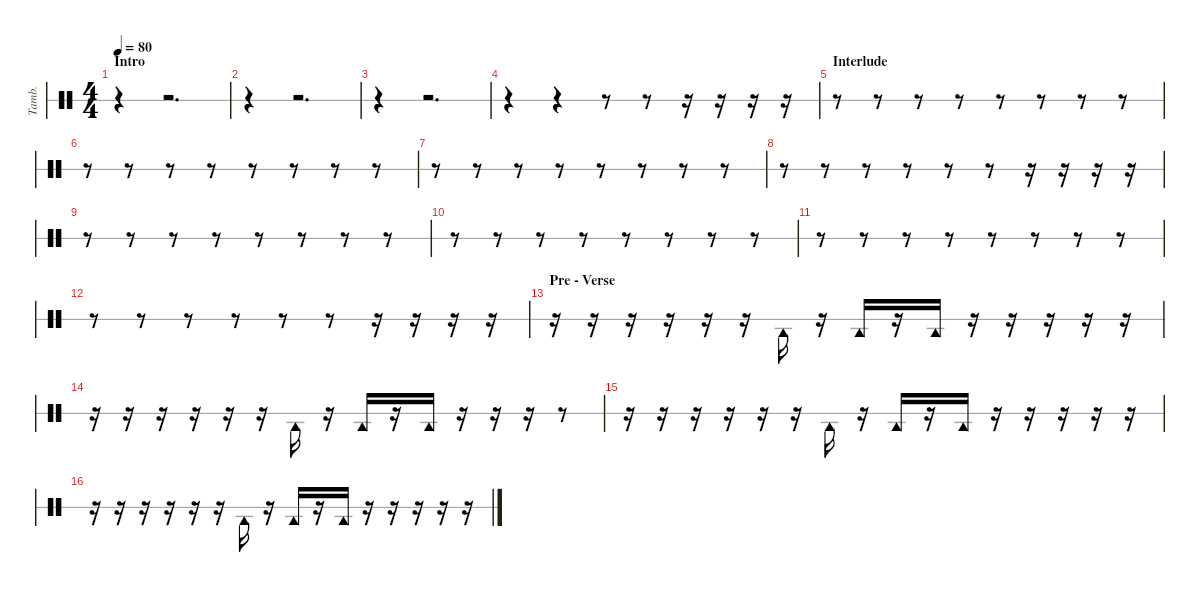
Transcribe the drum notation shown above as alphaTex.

\hideDynamics
\bracketExtendMode nobrackets
\otherSystemsTrackNameOrientation horizontal
\track ("Tambourine" "Tamb.") {instrument percussion}
\staff {score 1}
\articulation defaults
\ts (4 4)
\section ("" "Intro")
\tempo 80
\clef neutral
\ks c
r.4{dy f beam Down} r.2{d beam Down} |
r.4{beam Down} r.2{d beam Down} |
r.4{beam Down} r.2{d beam Down} |
r.4{beam Down} r.4{beam Down} r.8{beam Down} r.8{beam Down} r.16{beam Down} r.16{beam Down} r.16{beam Down} r.16{beam Down} |
\section ("" "Interlude")
r.8{beam Down} r.8{beam Down} r.8{beam Down} r.8{beam Down} r.8{beam Down} r.8{beam Down} r.8{beam Down} r.8{beam Down} |
r.8{beam Down} r.8{beam Down} r.8{beam Down} r.8{beam Down} r.8{beam Down} r.8{beam Down} r.8{beam Down} r.8{beam Down} |
r.8{beam Down} r.8{beam Down} r.8{beam Down} r.8{beam Down} r.8{beam Down} r.8{beam Down} r.8{beam Down} r.8{beam Down} |
r.8{beam Down} r.8{beam Down} r.8{beam Down} r.8{beam Down} r.8{beam Down} r.8{beam Down} r.16{beam Down} r.16{beam Down} r.16{beam Down} r.16{beam Down} |
r.8{beam Down} r.8{beam Down} r.8{beam Down} r.8{beam Down} r.8{beam Down} r.8{beam Down} r.8{beam Down} r.8{beam Down} |
r.8{beam Down} r.8{beam Down} r.8{beam Down} r.8{beam Down} r.8{beam Down} r.8{beam Down} r.8{beam Down} r.8{beam Down} |
r.8{beam Down} r.8{beam Down} r.8{beam Down} r.8{beam Down} r.8{beam Down} r.8{beam Down} r.8{beam Down} r.8{beam Down} |
r.8{beam Down} r.8{beam Down} r.8{beam Down} r.8{beam Down} r.8{beam Down} r.8{beam Down} r.16{beam Down} r.16{beam Down} r.16{beam Down} r.16{beam Down} |
\section ("" "Pre - Verse")
r.16{beam Down} r.16{beam Down} r.16{beam Down} r.16{beam Down} r.16{beam Down} r.16{beam Down} "Tambourine (hit)".16{beam Down} r.16{beam Down} "Tambourine (hit)".16{beam Up} r.16{beam Up} "Tambourine (hit)".16{beam Up} r.16{beam Up} r.16{beam Up} r.16{beam Up} r.16{beam Up} r.16{beam Up} |
r.16{beam Down} r.16{beam Down} r.16{beam Down} r.16{beam Down} r.16{beam Down} r.16{beam Down} "Tambourine (hit)".16{beam Down} r.16{beam Down} "Tambourine (hit)".16{beam Up} r.16{beam Up} "Tambourine (hit)".16{beam Up} r.16{beam Up} r.16{beam Up} r.16{beam Up} r.8{beam Up} |
r.16{beam Down} r.16{beam Down} r.16{beam Down} r.16{beam Down} r.16{beam Down} r.16{beam Down} "Tambourine (hit)".16{beam Down} r.16{beam Down} "Tambourine (hit)".16{beam Up} r.16{beam Up} "Tambourine (hit)".16{beam Up} r.16{beam Up} r.16{beam Up} r.16{beam Up} r.16{beam Up} r.16{beam Up} |
r.16{beam Down} r.16{beam Down} r.16{beam Down} r.16{beam Down} r.16{beam Down} r.16{beam Down} "Tambourine (hit)".16{beam Down} r.16{beam Down} "Tambourine (hit)".16{beam Up} r.16{beam Up} "Tambourine (hit)".16{beam Up} r.16{beam Up} r.16{beam Up} r.16{beam Up} r.16{beam Up} r.16{beam Up}
